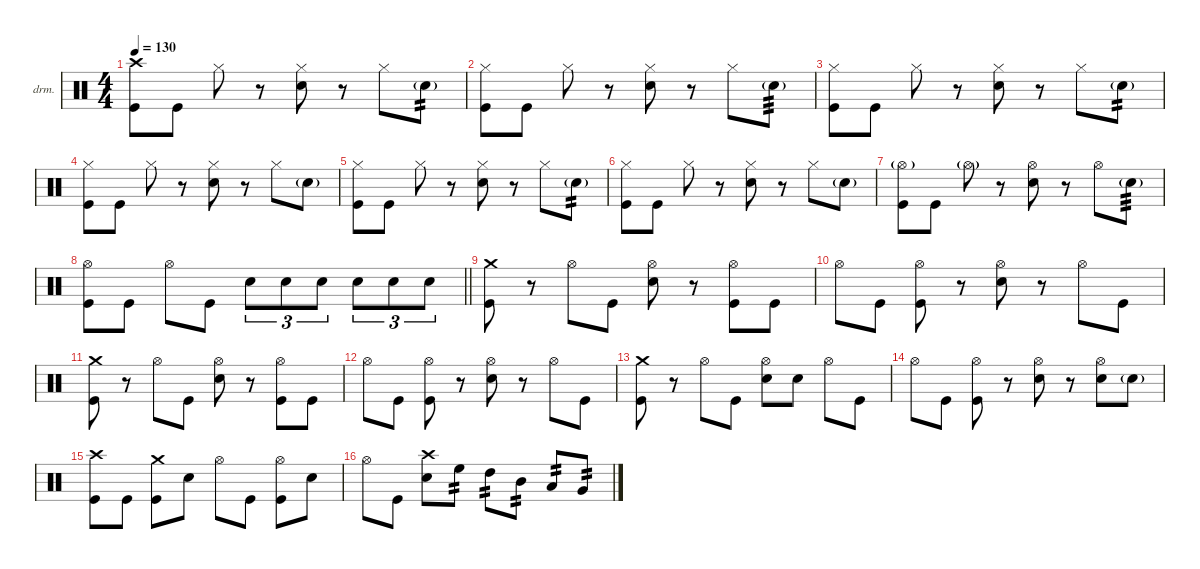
\defaultSystemsLayout 4
\hideDynamics
\bracketExtendMode nobrackets
\firstSystemTrackNameOrientation horizontal
\otherSystemsTrackNameOrientation horizontal
\track ("Drums" "drm.") {instrument percussion}
\staff {score}
\articulation defaults
\ts (4 4)
\tempo 130
\clef neutral
\ks c
("Crash high (hit)" "Kick (hit)").8{dy f} "Kick (hit)".8 "Hi-Hat (closed)".8 r.8 ("Hi-Hat (closed)" "Snare (hit) 2").8 r.8 "Hi-Hat (closed)".8 "Snare (hit) 2"{g}.8{tp 2 dy mf} |
("Hi-Hat (closed)" "Kick (hit)").8{dy f} "Kick (hit)".8 "Hi-Hat (closed)".8 r.8 ("Hi-Hat (closed)" "Snare (hit) 2").8 r.8 "Hi-Hat (closed)".8 "Snare (hit) 2"{g}.8{tp 3 dy mf} |
("Hi-Hat (closed)" "Kick (hit)").8{dy f} "Kick (hit)".8 "Hi-Hat (closed)".8 r.8 ("Hi-Hat (closed)" "Snare (hit) 2").8 r.8 "Hi-Hat (closed)".8 "Snare (hit) 2"{g}.8{tp 2 dy mf} |
("Hi-Hat (closed)" "Kick (hit)").8{dy f} "Kick (hit)".8 "Hi-Hat (closed)".8 r.8 ("Hi-Hat (closed)" "Snare (hit) 2").8 r.8 "Hi-Hat (closed)".8 "Snare (hit) 2"{g}.8{dy mf} |
("Hi-Hat (closed)" "Kick (hit)").8{dy f} "Kick (hit)".8 "Hi-Hat (closed)".8 r.8 ("Hi-Hat (closed)" "Snare (hit) 2").8 r.8 "Hi-Hat (closed)".8 "Snare (hit) 2"{g}.8{tp 2 dy mf} |
("Hi-Hat (closed)" "Kick (hit)").8{dy f} "Kick (hit)".8 "Hi-Hat (closed)".8 r.8 ("Hi-Hat (closed)" "Snare (hit) 2").8 r.8 "Hi-Hat (closed)".8 "Snare (hit) 2"{g}.8{dy mf} |
("Hi-Hat (open)"{g} "Kick (hit)").8{dy f} "Kick (hit)".8 "Hi-Hat (open)"{g}.8{dy mf} r.8 ("Hi-Hat (open)" "Snare (hit) 2").8{dy f} r.8 "Hi-Hat (open)".8 "Snare (hit) 2"{g}.8{tp 3 dy mf} |
\barLineRight lightlight
("Hi-Hat (open)" "Kick (hit)").8{dy f} "Kick (hit)".8 "Hi-Hat (open)".8 "Kick (hit)".8 "Snare (hit) 2".8{tu (3 2)} "Snare (hit) 2".8{tu (3 2)} "Snare (hit) 2".8{tu (3 2)} "Snare (hit) 2".8{tu (3 2)} "Snare (hit) 2".8{tu (3 2)} "Snare (hit) 2".8{tu (3 2)} |
\section ("" "")
("Crash medium (hit)" "Kick (hit)").8 r.8 "Hi-Hat (open)".8 "Kick (hit)".8 ("Hi-Hat (open)" "Snare (hit) 2").8 r.8 ("Hi-Hat (open)" "Kick (hit)").8 "Kick (hit)".8 |
"Hi-Hat (open)".8 "Kick (hit)".8 ("Hi-Hat (open)" "Kick (hit)").8 r.8 ("Hi-Hat (open)" "Snare (hit) 2").8 r.8 "Hi-Hat (open)".8 "Kick (hit)".8 |
("Crash medium (hit)" "Kick (hit)").8 r.8 "Hi-Hat (open)".8 "Kick (hit)".8 ("Hi-Hat (open)" "Snare (hit) 2").8 r.8 ("Hi-Hat (open)" "Kick (hit)").8 "Kick (hit)".8 |
"Hi-Hat (open)".8 "Kick (hit)".8 ("Hi-Hat (open)" "Kick (hit)").8 r.8 ("Hi-Hat (open)" "Snare (hit) 2").8 r.8 "Hi-Hat (open)".8 "Kick (hit)".8 |
("Crash medium (hit)" "Kick (hit)").8 r.8 "Hi-Hat (open)".8 "Kick (hit)".8 ("Hi-Hat (open)" "Snare (hit) 2").8 "Snare (hit) 2".8 "Hi-Hat (open)".8 "Kick (hit)".8 |
"Hi-Hat (open)".8 "Kick (hit)".8 ("Hi-Hat (open)" "Kick (hit)").8 r.8 ("Hi-Hat (open)" "Snare (hit) 2").8 r.8 ("Hi-Hat (open)" "Snare (hit) 2").8 "Snare (hit) 2"{g}.8{dy mf} |
("Crash high (hit)" "Kick (hit)").8{dy f} "Kick (hit)".8 ("Crash medium (hit)" "Kick (hit)").8 "Snare (hit) 2".8 "Hi-Hat (open)".8 "Kick (hit)".8 ("Hi-Hat (open)" "Kick (hit)").8 "Snare (hit) 2".8 |
"Hi-Hat (open)".8 "Kick (hit)".8 ("Crash high (hit)" "Snare (hit) 2").8 "High Floor Tom (hit)".8{tp 2} "High Tom (hit)".8{tp 2} "Mid Tom (hit)".8{tp 2} "Low Tom (hit)".8{tp 2} "Very Low Tom (hit)".8{tp 2}
